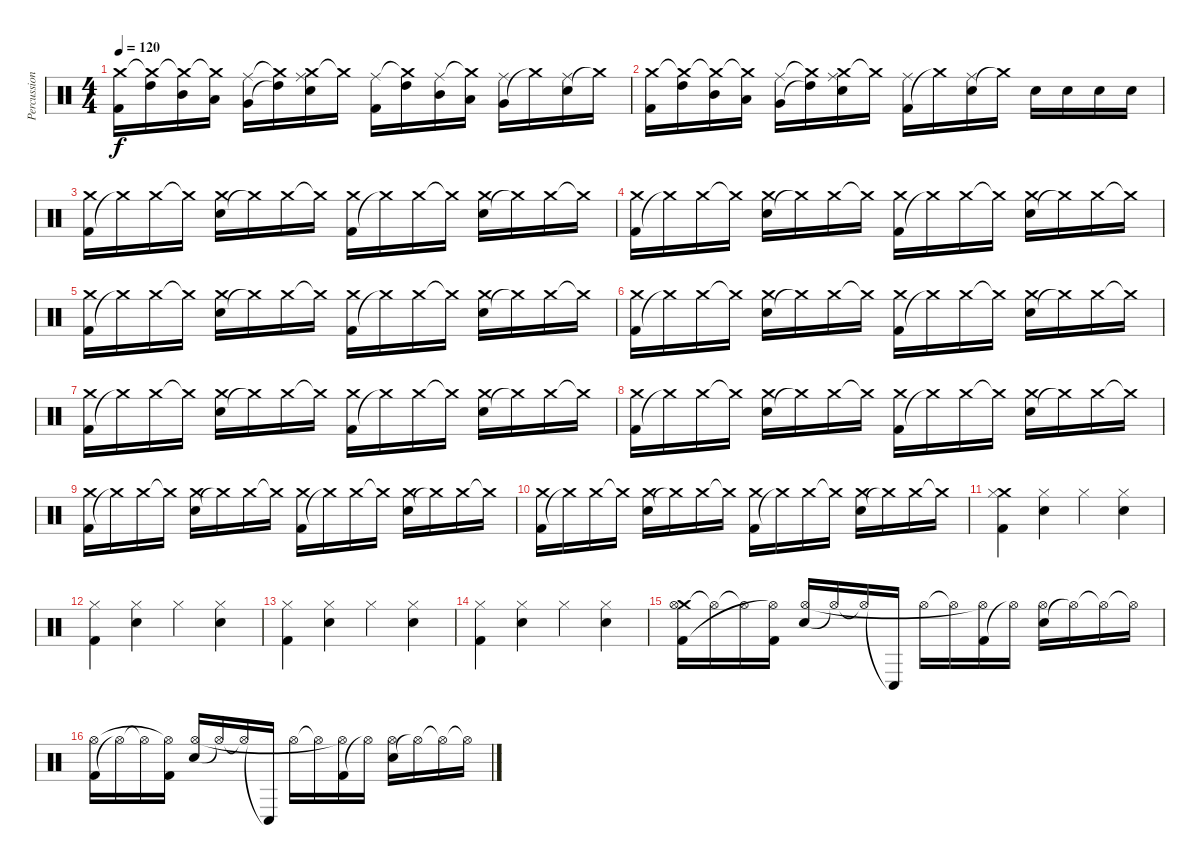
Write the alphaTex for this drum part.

\track ("Percussions" "Percussion") {instrument percussion}
\staff {score}
\articulation defaults
\ts (4 4)
\tempo 120
\clef neutral
\ks c
("Kick (hit) 2" "Crash medium (hit)").16{dy f} ("High Tom (hit)" "Crash medium (hit)"{t}).16 ("Mid Tom (hit)" "Crash medium (hit)"{t}).16 ("Low Tom (hit)" "Crash medium (hit)"{t}).16 ("Very Low Tom (hit)" "Ride (middle)").16 ("High Tom (hit)"{t} "Crash medium (hit)"{t}).16 ("Crash medium (hit)" "Electric Snare (hit)" "Ride (middle)").16 "Crash medium (hit)"{t}.16 ("Kick (hit) 2" "Ride (middle)").16 ("High Tom (hit)" "Crash medium (hit)"{t}).16 ("Mid Tom (hit)" "Ride (middle)").16 ("Low Tom (hit)" "Crash medium (hit)"{t}).16 ("Very Low Tom (hit)" "Ride (middle)").16 "Crash medium (hit)"{t}.16 ("Electric Snare (hit)" "Ride (middle)").16 "Crash medium (hit)"{t}.16 |
("Kick (hit) 2" "Crash medium (hit)").16 ("High Tom (hit)" "Crash medium (hit)"{t}).16 ("Mid Tom (hit)" "Crash medium (hit)"{t}).16 ("Low Tom (hit)" "Crash medium (hit)"{t}).16 ("Very Low Tom (hit)" "Ride (middle)").16 ("High Tom (hit)"{t} "Crash medium (hit)"{t}).16 ("Crash medium (hit)" "Electric Snare (hit)" "Ride (middle)").16 "Crash medium (hit)"{t}.16 ("Kick (hit) 2" "Ride (middle)").16 "Crash medium (hit)"{t}.16 ("Electric Snare (hit)" "Ride (middle)").16 "Crash medium (hit)"{t}.16 "Electric Snare (hit)".16 "Electric Snare (hit)".16 "Electric Snare (hit)".16 "Electric Snare (hit)".16 |
("Kick (hit) 2" "Crash medium (hit)").16 "Crash medium (hit)"{t}.16 "Crash medium (hit)".16 "Crash medium (hit)"{t}.16 ("Electric Snare (hit)" "Crash medium (hit)").16 "Crash medium (hit)"{t}.16 "Crash medium (hit)".16 "Crash medium (hit)"{t}.16 ("Kick (hit) 2" "Crash medium (hit)").16 "Crash medium (hit)"{t}.16 "Crash medium (hit)".16 "Crash medium (hit)"{t}.16 ("Electric Snare (hit)" "Crash medium (hit)").16 "Crash medium (hit)"{t}.16 "Crash medium (hit)".16 "Crash medium (hit)"{t}.16 |
("Kick (hit) 2" "Crash medium (hit)").16 "Crash medium (hit)"{t}.16 "Crash medium (hit)".16 "Crash medium (hit)"{t}.16 ("Electric Snare (hit)" "Crash medium (hit)").16 "Crash medium (hit)"{t}.16 "Crash medium (hit)".16 "Crash medium (hit)"{t}.16 ("Kick (hit) 2" "Crash medium (hit)").16 "Crash medium (hit)"{t}.16 "Crash medium (hit)".16 "Crash medium (hit)"{t}.16 ("Electric Snare (hit)" "Crash medium (hit)").16 "Crash medium (hit)"{t}.16 "Crash medium (hit)".16 "Crash medium (hit)"{t}.16 |
("Kick (hit) 2" "Crash medium (hit)").16 "Crash medium (hit)"{t}.16 "Crash medium (hit)".16 "Crash medium (hit)"{t}.16 ("Electric Snare (hit)" "Crash medium (hit)").16 "Crash medium (hit)"{t}.16 "Crash medium (hit)".16 "Crash medium (hit)"{t}.16 ("Kick (hit) 2" "Crash medium (hit)").16 "Crash medium (hit)"{t}.16 "Crash medium (hit)".16 "Crash medium (hit)"{t}.16 ("Electric Snare (hit)" "Crash medium (hit)").16 "Crash medium (hit)"{t}.16 "Crash medium (hit)".16 "Crash medium (hit)"{t}.16 |
("Kick (hit) 2" "Crash medium (hit)").16 "Crash medium (hit)"{t}.16 "Crash medium (hit)".16 "Crash medium (hit)"{t}.16 ("Electric Snare (hit)" "Crash medium (hit)").16 "Crash medium (hit)"{t}.16 "Crash medium (hit)".16 "Crash medium (hit)"{t}.16 ("Kick (hit) 2" "Crash medium (hit)").16 "Crash medium (hit)"{t}.16 "Crash medium (hit)".16 "Crash medium (hit)"{t}.16 ("Electric Snare (hit)" "Crash medium (hit)").16 "Crash medium (hit)"{t}.16 "Crash medium (hit)".16 "Crash medium (hit)"{t}.16 |
("Kick (hit) 2" "Crash medium (hit)").16 "Crash medium (hit)"{t}.16 "Crash medium (hit)".16 "Crash medium (hit)"{t}.16 ("Electric Snare (hit)" "Crash medium (hit)").16 "Crash medium (hit)"{t}.16 "Crash medium (hit)".16 "Crash medium (hit)"{t}.16 ("Kick (hit) 2" "Crash medium (hit)").16 "Crash medium (hit)"{t}.16 "Crash medium (hit)".16 "Crash medium (hit)"{t}.16 ("Electric Snare (hit)" "Crash medium (hit)").16 "Crash medium (hit)"{t}.16 "Crash medium (hit)".16 "Crash medium (hit)"{t}.16 |
("Kick (hit) 2" "Crash medium (hit)").16 "Crash medium (hit)"{t}.16 "Crash medium (hit)".16 "Crash medium (hit)"{t}.16 ("Electric Snare (hit)" "Crash medium (hit)").16 "Crash medium (hit)"{t}.16 "Crash medium (hit)".16 "Crash medium (hit)"{t}.16 ("Kick (hit) 2" "Crash medium (hit)").16 "Crash medium (hit)"{t}.16 "Crash medium (hit)".16 "Crash medium (hit)"{t}.16 ("Electric Snare (hit)" "Crash medium (hit)").16 "Crash medium (hit)"{t}.16 "Crash medium (hit)".16 "Crash medium (hit)"{t}.16 |
("Kick (hit) 2" "Crash medium (hit)").16 "Crash medium (hit)"{t}.16 "Crash medium (hit)".16 "Crash medium (hit)"{t}.16 ("Electric Snare (hit)" "Crash medium (hit)").16 "Crash medium (hit)"{t}.16 "Crash medium (hit)".16 "Crash medium (hit)"{t}.16 ("Kick (hit) 2" "Crash medium (hit)").16 "Crash medium (hit)"{t}.16 "Crash medium (hit)".16 "Crash medium (hit)"{t}.16 ("Electric Snare (hit)" "Crash medium (hit)").16 "Crash medium (hit)"{t}.16 "Crash medium (hit)".16 "Crash medium (hit)"{t}.16 |
("Kick (hit) 2" "Crash medium (hit)").16 "Crash medium (hit)"{t}.16 "Crash medium (hit)".16 "Crash medium (hit)"{t}.16 ("Electric Snare (hit)" "Crash medium (hit)").16 "Crash medium (hit)"{t}.16 "Crash medium (hit)".16 "Crash medium (hit)"{t}.16 ("Kick (hit) 2" "Crash medium (hit)").16 "Crash medium (hit)"{t}.16 "Crash medium (hit)".16 "Crash medium (hit)"{t}.16 ("Electric Snare (hit)" "Crash medium (hit)").16 "Crash medium (hit)"{t}.16 "Crash medium (hit)".16 "Crash medium (hit)"{t}.16 |
("Crash medium (hit)" "Kick (hit) 2" "Hi-Hat (closed)").4 ("Electric Snare (hit)" "Hi-Hat (closed)").4 "Hi-Hat (closed)".4 ("Electric Snare (hit)" "Hi-Hat (closed)").4 |
("Kick (hit) 2" "Hi-Hat (closed)").4 ("Electric Snare (hit)" "Hi-Hat (closed)").4 "Hi-Hat (closed)".4 ("Electric Snare (hit)" "Hi-Hat (closed)").4 |
("Kick (hit) 2" "Hi-Hat (closed)").4 ("Electric Snare (hit)" "Hi-Hat (closed)").4 "Hi-Hat (closed)".4 ("Electric Snare (hit)" "Hi-Hat (closed)").4 |
("Kick (hit) 2" "Hi-Hat (closed)").4 ("Electric Snare (hit)" "Hi-Hat (closed)").4 "Hi-Hat (closed)".4 ("Electric Snare (hit)" "Hi-Hat (closed)").4 |
("Crash medium (hit)" "Kick (hit) 2" "Hi-Hat (open)").16 "Hi-Hat (open)"{t}.16 "Hi-Hat (open)"{t}.16 ("Kick (hit) 2" "Hi-Hat (open)"{t}).16 ("Electric Snare (hit)" "Hi-Hat (open)").16 "Hi-Hat (open)"{t}.16 "Hi-Hat (open)"{t}.16 "Conga low (hit)"{t}.16 "Hi-Hat (open)".16 "Hi-Hat (open)"{t}.16 ("Kick (hit) 2" "Hi-Hat (open)"{t}).16 "Hi-Hat (open)"{t}.16 ("Electric Snare (hit)" "Hi-Hat (open)").16 "Hi-Hat (open)"{t}.16 "Hi-Hat (open)"{t}.16 "Hi-Hat (open)"{t}.16 |
("Kick (hit) 2" "Hi-Hat (open)").16 "Hi-Hat (open)"{t}.16 "Hi-Hat (open)"{t}.16 ("Kick (hit) 2" "Hi-Hat (open)"{t}).16 ("Electric Snare (hit)" "Hi-Hat (open)").16 "Hi-Hat (open)"{t}.16 "Hi-Hat (open)"{t}.16 "Conga low (hit)"{t}.16 "Hi-Hat (open)".16 "Hi-Hat (open)"{t}.16 ("Kick (hit) 2" "Hi-Hat (open)"{t}).16 "Hi-Hat (open)"{t}.16 ("Electric Snare (hit)" "Hi-Hat (open)").16 "Hi-Hat (open)"{t}.16 "Hi-Hat (open)"{t}.16 "Hi-Hat (open)"{t}.16
